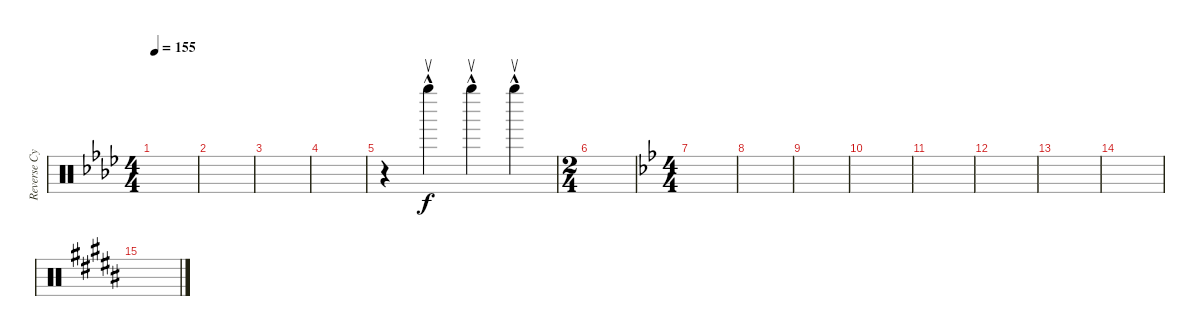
\track ("Reverse Cymbal" "Reverse Cy") {instrument percussion}
\staff {score}
\articulation defaults
\ts (4 4)
\tempo 155
\clef neutral
\ks ab
|
|
|
|
r.4 "Right Maraca (return)"{hac}.4 "Right Maraca (return)"{hac}.4 "Right Maraca (return)"{hac}.4 |
\ts (2 4)
|
\ts (4 4)
\ks bb
|
|
|
|
|
|
|
|
\ks b
